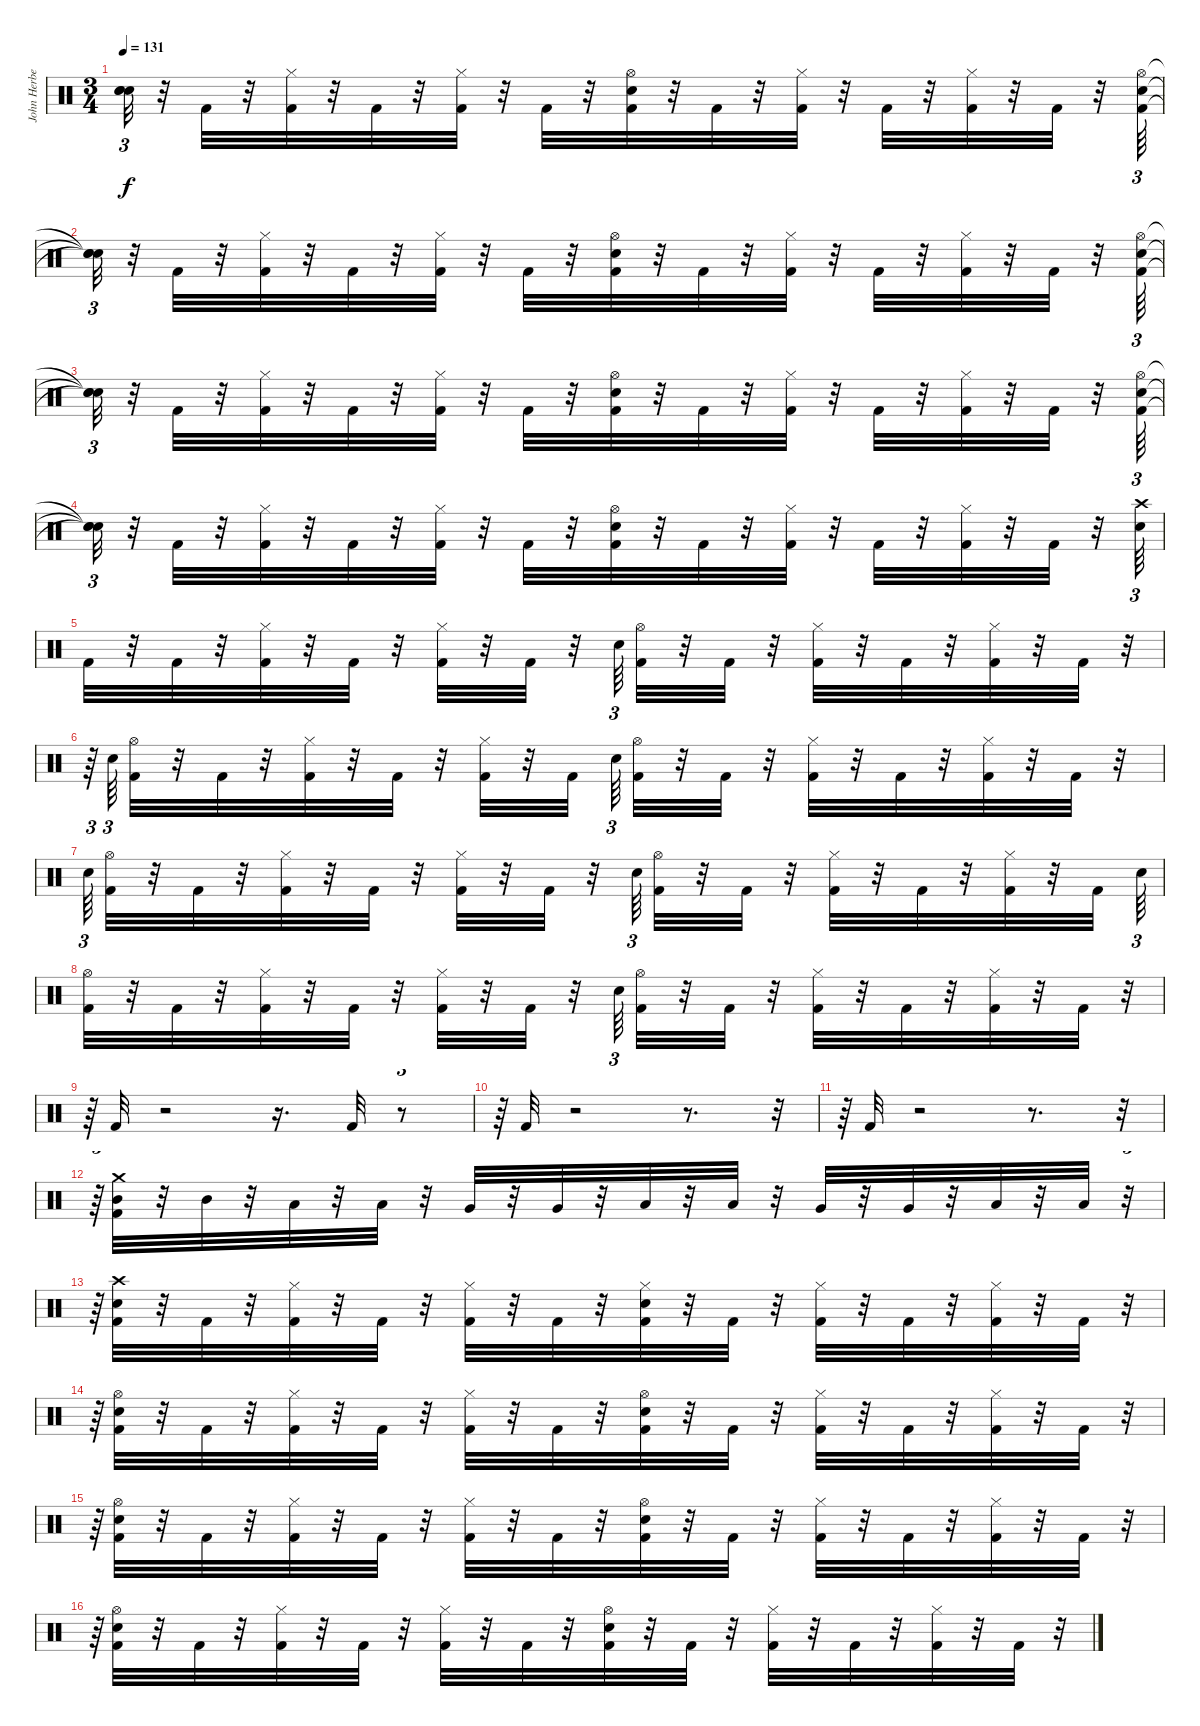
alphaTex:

\track ("John Herbert" "John Herbe") {instrument percussion}
\staff {score}
\articulation defaults
\ts (3 4)
\tempo 131
\clef neutral
\ks c
("Snare (hit)"{t} "Snare (hit)"{t} "Snare (hit)"{t}).32{tu (3 2) dy f} r.32 "Kick (hit) 2".32 r.32 ("Kick (hit) 2" "Hi-Hat (closed)").32 r.32 "Kick (hit) 2".32 r.32 ("Kick (hit) 2" "Hi-Hat (closed)").32 r.32 "Kick (hit) 2".32 r.32 ("Snare (hit) 2" "Kick (hit) 2" "Hi-Hat (open)").32 r.32 "Kick (hit) 2".32 r.32 ("Kick (hit) 2" "Hi-Hat (closed)").32 r.32 "Kick (hit) 2".32 r.32 ("Kick (hit) 2" "Hi-Hat (closed)").32 r.32 "Kick (hit) 2".32 r.32 ("Snare (hit) 2" "Kick (hit) 2" "Hi-Hat (open)").64{tu (3 2)} |
("Snare (hit)"{t} "Snare (hit)"{t} "Snare (hit)"{t}).32{tu (3 2)} r.32 "Kick (hit) 2".32 r.32 ("Kick (hit) 2" "Hi-Hat (closed)").32 r.32 "Kick (hit) 2".32 r.32 ("Kick (hit) 2" "Hi-Hat (closed)").32 r.32 "Kick (hit) 2".32 r.32 ("Snare (hit) 2" "Kick (hit) 2" "Hi-Hat (open)").32 r.32 "Kick (hit) 2".32 r.32 ("Kick (hit) 2" "Hi-Hat (closed)").32 r.32 "Kick (hit) 2".32 r.32 ("Kick (hit) 2" "Hi-Hat (closed)").32 r.32 "Kick (hit) 2".32 r.32 ("Snare (hit) 2" "Kick (hit) 2" "Hi-Hat (open)").64{tu (3 2)} |
("Snare (hit)"{t} "Snare (hit)"{t} "Snare (hit)"{t}).32{tu (3 2)} r.32 "Kick (hit) 2".32 r.32 ("Kick (hit) 2" "Hi-Hat (closed)").32 r.32 "Kick (hit) 2".32 r.32 ("Kick (hit) 2" "Hi-Hat (closed)").32 r.32 "Kick (hit) 2".32 r.32 ("Snare (hit) 2" "Kick (hit) 2" "Hi-Hat (open)").32 r.32 "Kick (hit) 2".32 r.32 ("Kick (hit) 2" "Hi-Hat (closed)").32 r.32 "Kick (hit) 2".32 r.32 ("Kick (hit) 2" "Hi-Hat (closed)").32 r.32 "Kick (hit) 2".32 r.32 ("Snare (hit) 2" "Kick (hit) 2" "Hi-Hat (open)").64{tu (3 2)} |
("Snare (hit)"{t} "Snare (hit)"{t} "Snare (hit)"{t}).32{tu (3 2)} r.32 "Kick (hit) 2".32 r.32 ("Kick (hit) 2" "Hi-Hat (closed)").32 r.32 "Kick (hit) 2".32 r.32 ("Kick (hit) 2" "Hi-Hat (closed)").32 r.32 "Kick (hit) 2".32 r.32 ("Snare (hit) 2" "Kick (hit) 2" "Hi-Hat (open)").32 r.32 "Kick (hit) 2".32 r.32 ("Kick (hit) 2" "Hi-Hat (closed)").32 r.32 "Kick (hit) 2".32 r.32 ("Kick (hit) 2" "Hi-Hat (closed)").32 r.32 "Kick (hit) 2".32 r.32 ("Crash high (hit)" "Snare (hit) 2").64{tu (3 2)} |
"Kick (hit) 2".32 r.32 "Kick (hit) 2".32 r.32 ("Kick (hit) 2" "Hi-Hat (closed)").32 r.32 "Kick (hit) 2".32 r.32 ("Kick (hit) 2" "Hi-Hat (closed)").32 r.32 "Kick (hit) 2".32 r.32 "Snare (hit) 2".64{tu (3 2)} ("Kick (hit) 2" "Hi-Hat (open)").32 r.32 "Kick (hit) 2".32 r.32 ("Kick (hit) 2" "Hi-Hat (closed)").32 r.32 "Kick (hit) 2".32 r.32 ("Kick (hit) 2" "Hi-Hat (closed)").32 r.32 "Kick (hit) 2".32 r.32{tu (3 2)} |
r.64{tu (3 2)} "Snare (hit) 2".64{tu (3 2)} ("Kick (hit) 2" "Hi-Hat (open)").32 r.32 "Kick (hit) 2".32 r.32 ("Kick (hit) 2" "Hi-Hat (closed)").32 r.32 "Kick (hit) 2".32 r.32 ("Kick (hit) 2" "Hi-Hat (closed)").32 r.32 "Kick (hit) 2".32 "Snare (hit) 2".64{tu (3 2)} ("Kick (hit) 2" "Hi-Hat (open)").32 r.32 "Kick (hit) 2".32 r.32 ("Kick (hit) 2" "Hi-Hat (closed)").32 r.32 "Kick (hit) 2".32 r.32 ("Kick (hit) 2" "Hi-Hat (closed)").32 r.32 "Kick (hit) 2".32 r.32 |
"Snare (hit) 2".64{tu (3 2)} ("Kick (hit) 2" "Hi-Hat (open)").32 r.32 "Kick (hit) 2".32 r.32 ("Kick (hit) 2" "Hi-Hat (closed)").32 r.32 "Kick (hit) 2".32 r.32 ("Kick (hit) 2" "Hi-Hat (closed)").32 r.32 "Kick (hit) 2".32 r.32 "Snare (hit) 2".64{tu (3 2)} ("Kick (hit) 2" "Hi-Hat (open)").32 r.32 "Kick (hit) 2".32 r.32 ("Kick (hit) 2" "Hi-Hat (closed)").32 r.32 "Kick (hit) 2".32 r.32 ("Kick (hit) 2" "Hi-Hat (closed)").32 r.32 "Kick (hit) 2".32 "Snare (hit) 2".64{tu (3 2)} |
("Kick (hit) 2" "Hi-Hat (open)").32 r.32 "Kick (hit) 2".32 r.32 ("Kick (hit) 2" "Hi-Hat (closed)").32 r.32 "Kick (hit) 2".32 r.32 ("Kick (hit) 2" "Hi-Hat (closed)").32 r.32 "Kick (hit) 2".32 r.32 "Snare (hit) 2".64{tu (3 2)} ("Kick (hit) 2" "Hi-Hat (open)").32 r.32 "Kick (hit) 2".32 r.32 ("Kick (hit) 2" "Hi-Hat (closed)").32 r.32 "Kick (hit) 2".32 r.32 ("Kick (hit) 2" "Hi-Hat (closed)").32 r.32 "Kick (hit) 2".32 r.32{tu (3 2)} |
r.64{tu (3 2)} "Kick (hit) 2".32 r.2 r.16{d} "Kick (hit) 2".32 r.8{tu (3 2)} |
r.64{tu (3 2)} "Kick (hit) 2".32 r.2 r.8{d} r.32{tu (3 2)} |
r.64{tu (3 2)} "Kick (hit) 2".32 r.2 r.8{d} r.32{tu (3 2)} |
r.64{tu (3 2)} ("Mid Tom (hit)" "Crash medium (hit)" "Kick (hit) 2").32 r.32 "Mid Tom (hit)".32 r.32 "Low Tom (hit)".32 r.32 "Low Tom (hit)".32 r.32 "Very Low Tom (hit)".32 r.32 "Very Low Tom (hit)".32 r.32 "Low Tom (hit)".32 r.32 "Low Tom (hit)".32 r.32 "Very Low Tom (hit)".32 r.32 "Very Low Tom (hit)".32 r.32 "Low Floor Tom (hit)".32 r.32 "Low Floor Tom (hit)".32 r.32{tu (3 2)} |
r.64{tu (3 2)} ("Snare (hit) 2" "Kick (hit) 2" "Crash high (hit)").32 r.32 "Kick (hit) 2".32 r.32 ("Kick (hit) 2" "Hi-Hat (closed)").32 r.32 "Kick (hit) 2".32 r.32 ("Kick (hit) 2" "Hi-Hat (closed)").32 r.32 "Kick (hit) 2".32 r.32 ("Snare (hit) 2" "Kick (hit) 2" "Hi-Hat (closed)").32 r.32 "Kick (hit) 2".32 r.32 ("Kick (hit) 2" "Hi-Hat (closed)").32 r.32 "Kick (hit) 2".32 r.32 ("Kick (hit) 2" "Hi-Hat (closed)").32 r.32 "Kick (hit) 2".32 r.32{tu (3 2)} |
r.64{tu (3 2)} ("Snare (hit) 2" "Kick (hit) 2" "Hi-Hat (open)").32 r.32 "Kick (hit) 2".32 r.32 ("Kick (hit) 2" "Hi-Hat (closed)").32 r.32 "Kick (hit) 2".32 r.32 ("Kick (hit) 2" "Hi-Hat (closed)").32 r.32 "Kick (hit) 2".32 r.32 ("Snare (hit) 2" "Kick (hit) 2" "Hi-Hat (open)").32 r.32 "Kick (hit) 2".32 r.32 ("Kick (hit) 2" "Hi-Hat (closed)").32 r.32 "Kick (hit) 2".32 r.32 ("Kick (hit) 2" "Hi-Hat (closed)").32 r.32 "Kick (hit) 2".32 r.32{tu (3 2)} |
r.64{tu (3 2)} ("Snare (hit) 2" "Kick (hit) 2" "Hi-Hat (open)").32 r.32 "Kick (hit) 2".32 r.32 ("Kick (hit) 2" "Hi-Hat (closed)").32 r.32 "Kick (hit) 2".32 r.32 ("Kick (hit) 2" "Hi-Hat (closed)").32 r.32 "Kick (hit) 2".32 r.32 ("Snare (hit) 2" "Kick (hit) 2" "Hi-Hat (open)").32 r.32 "Kick (hit) 2".32 r.32 ("Kick (hit) 2" "Hi-Hat (closed)").32 r.32 "Kick (hit) 2".32 r.32 ("Kick (hit) 2" "Hi-Hat (closed)").32 r.32 "Kick (hit) 2".32 r.32{tu (3 2)} |
r.64{tu (3 2)} ("Snare (hit) 2" "Kick (hit) 2" "Hi-Hat (open)").32 r.32 "Kick (hit) 2".32 r.32 ("Kick (hit) 2" "Hi-Hat (closed)").32 r.32 "Kick (hit) 2".32 r.32 ("Kick (hit) 2" "Hi-Hat (closed)").32 r.32 "Kick (hit) 2".32 r.32 ("Snare (hit) 2" "Kick (hit) 2" "Hi-Hat (open)").32 r.32 "Kick (hit) 2".32 r.32 ("Kick (hit) 2" "Hi-Hat (closed)").32 r.32 "Kick (hit) 2".32 r.32 ("Kick (hit) 2" "Hi-Hat (closed)").32 r.32 "Kick (hit) 2".32 r.32{tu (3 2)}
